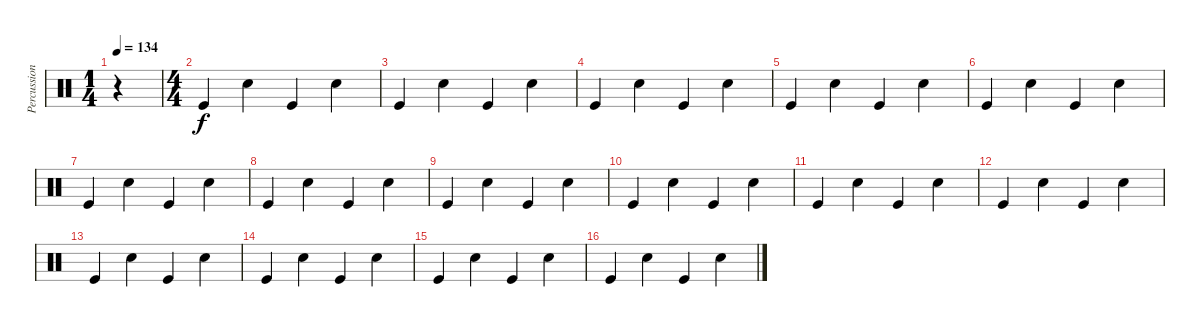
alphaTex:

\track ("Percussions" "Percussion") {instrument percussion}
\staff {score}
\articulation defaults
\ts (1 4)
\tempo 134
\clef neutral
\ks c
r.4{dy f} |
\ts (4 4)
"Kick (hit)".4 "Snare (hit) 2".4 "Kick (hit)".4 "Snare (hit) 2".4 |
"Kick (hit)".4 "Snare (hit) 2".4 "Kick (hit)".4 "Snare (hit) 2".4 |
"Kick (hit)".4 "Snare (hit) 2".4 "Kick (hit)".4 "Snare (hit) 2".4 |
"Kick (hit)".4 "Snare (hit) 2".4 "Kick (hit)".4 "Snare (hit) 2".4 |
"Kick (hit)".4 "Snare (hit) 2".4 "Kick (hit)".4 "Snare (hit) 2".4 |
"Kick (hit)".4 "Snare (hit) 2".4 "Kick (hit)".4 "Snare (hit) 2".4 |
"Kick (hit)".4 "Snare (hit) 2".4 "Kick (hit)".4 "Snare (hit) 2".4 |
"Kick (hit)".4 "Snare (hit) 2".4 "Kick (hit)".4 "Snare (hit) 2".4 |
"Kick (hit)".4 "Snare (hit) 2".4 "Kick (hit)".4 "Snare (hit) 2".4 |
"Kick (hit)".4 "Snare (hit) 2".4 "Kick (hit)".4 "Snare (hit) 2".4 |
"Kick (hit)".4 "Snare (hit) 2".4 "Kick (hit)".4 "Snare (hit) 2".4 |
"Kick (hit)".4 "Snare (hit) 2".4 "Kick (hit)".4 "Snare (hit) 2".4 |
"Kick (hit)".4 "Snare (hit) 2".4 "Kick (hit)".4 "Snare (hit) 2".4 |
"Kick (hit)".4 "Snare (hit) 2".4 "Kick (hit)".4 "Snare (hit) 2".4 |
"Kick (hit)".4 "Snare (hit) 2".4 "Kick (hit)".4 "Snare (hit) 2".4
